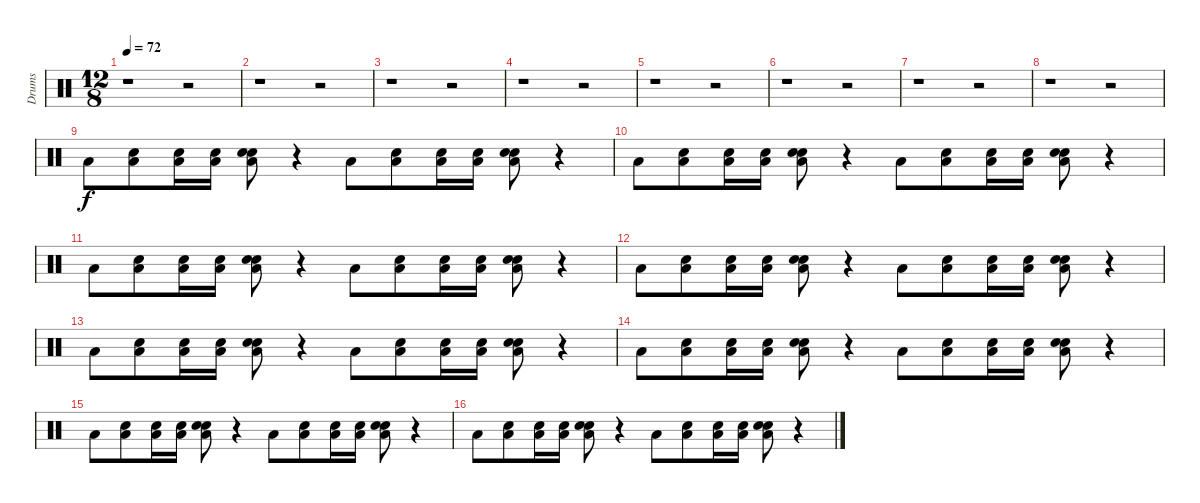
\track ("Drums" "Drums") {instrument percussion}
\staff {score}
\articulation defaults
\ts (12 8)
\tempo 72
\clef neutral
\ks c
r.1{dy f} r.2 |
r.1 r.2 |
r.1 r.2 |
r.1 r.2 |
r.1 r.2 |
r.1 r.2 |
r.1 r.2 |
r.1 r.2 |
"Low Floor Tom (hit)".8 ("Snare (hit)" "Low Floor Tom (hit)").8 ("Snare (hit)" "Low Floor Tom (hit)").16 ("Snare (hit)" "Low Floor Tom (hit)").16 ("Snare (hit)" "Electric Snare (hit)" "Low Floor Tom (hit)").8 r.4 "Low Floor Tom (hit)".8 ("Snare (hit)" "Low Floor Tom (hit)").8 ("Snare (hit)" "Low Floor Tom (hit)").16 ("Snare (hit)" "Low Floor Tom (hit)").16 ("Snare (hit)" "Electric Snare (hit)" "Low Floor Tom (hit)").8 r.4 |
"Low Floor Tom (hit)".8 ("Snare (hit)" "Low Floor Tom (hit)").8 ("Snare (hit)" "Low Floor Tom (hit)").16 ("Snare (hit)" "Low Floor Tom (hit)").16 ("Snare (hit)" "Electric Snare (hit)" "Low Floor Tom (hit)").8 r.4 "Low Floor Tom (hit)".8 ("Snare (hit)" "Low Floor Tom (hit)").8 ("Snare (hit)" "Low Floor Tom (hit)").16 ("Snare (hit)" "Low Floor Tom (hit)").16 ("Snare (hit)" "Electric Snare (hit)" "Low Floor Tom (hit)").8 r.4 |
"Low Floor Tom (hit)".8 ("Snare (hit)" "Low Floor Tom (hit)").8 ("Snare (hit)" "Low Floor Tom (hit)").16 ("Snare (hit)" "Low Floor Tom (hit)").16 ("Snare (hit)" "Electric Snare (hit)" "Low Floor Tom (hit)").8 r.4 "Low Floor Tom (hit)".8 ("Snare (hit)" "Low Floor Tom (hit)").8 ("Snare (hit)" "Low Floor Tom (hit)").16 ("Snare (hit)" "Low Floor Tom (hit)").16 ("Snare (hit)" "Electric Snare (hit)" "Low Floor Tom (hit)").8 r.4 |
"Low Floor Tom (hit)".8 ("Snare (hit)" "Low Floor Tom (hit)").8 ("Snare (hit)" "Low Floor Tom (hit)").16 ("Snare (hit)" "Low Floor Tom (hit)").16 ("Snare (hit)" "Electric Snare (hit)" "Low Floor Tom (hit)").8 r.4 "Low Floor Tom (hit)".8 ("Snare (hit)" "Low Floor Tom (hit)").8 ("Snare (hit)" "Low Floor Tom (hit)").16 ("Snare (hit)" "Low Floor Tom (hit)").16 ("Snare (hit)" "Electric Snare (hit)" "Low Floor Tom (hit)").8 r.4 |
"Low Floor Tom (hit)".8 ("Snare (hit)" "Low Floor Tom (hit)").8 ("Snare (hit)" "Low Floor Tom (hit)").16 ("Snare (hit)" "Low Floor Tom (hit)").16 ("Snare (hit)" "Electric Snare (hit)" "Low Floor Tom (hit)").8 r.4 "Low Floor Tom (hit)".8 ("Snare (hit)" "Low Floor Tom (hit)").8 ("Snare (hit)" "Low Floor Tom (hit)").16 ("Snare (hit)" "Low Floor Tom (hit)").16 ("Snare (hit)" "Electric Snare (hit)" "Low Floor Tom (hit)").8 r.4 |
"Low Floor Tom (hit)".8 ("Snare (hit)" "Low Floor Tom (hit)").8 ("Snare (hit)" "Low Floor Tom (hit)").16 ("Snare (hit)" "Low Floor Tom (hit)").16 ("Snare (hit)" "Electric Snare (hit)" "Low Floor Tom (hit)").8 r.4 "Low Floor Tom (hit)".8 ("Snare (hit)" "Low Floor Tom (hit)").8 ("Snare (hit)" "Low Floor Tom (hit)").16 ("Snare (hit)" "Low Floor Tom (hit)").16 ("Snare (hit)" "Electric Snare (hit)" "Low Floor Tom (hit)").8 r.4 |
"Low Floor Tom (hit)".8 ("Snare (hit)" "Low Floor Tom (hit)").8 ("Snare (hit)" "Low Floor Tom (hit)").16 ("Snare (hit)" "Low Floor Tom (hit)").16 ("Snare (hit)" "Electric Snare (hit)" "Low Floor Tom (hit)").8 r.4 "Low Floor Tom (hit)".8 ("Snare (hit)" "Low Floor Tom (hit)").8 ("Snare (hit)" "Low Floor Tom (hit)").16 ("Snare (hit)" "Low Floor Tom (hit)").16 ("Snare (hit)" "Electric Snare (hit)" "Low Floor Tom (hit)").8 r.4 |
"Low Floor Tom (hit)".8 ("Snare (hit)" "Low Floor Tom (hit)").8 ("Snare (hit)" "Low Floor Tom (hit)").16 ("Snare (hit)" "Low Floor Tom (hit)").16 ("Snare (hit)" "Electric Snare (hit)" "Low Floor Tom (hit)").8 r.4 "Low Floor Tom (hit)".8 ("Snare (hit)" "Low Floor Tom (hit)").8 ("Snare (hit)" "Low Floor Tom (hit)").16 ("Snare (hit)" "Low Floor Tom (hit)").16 ("Snare (hit)" "Electric Snare (hit)" "Low Floor Tom (hit)").8 r.4
